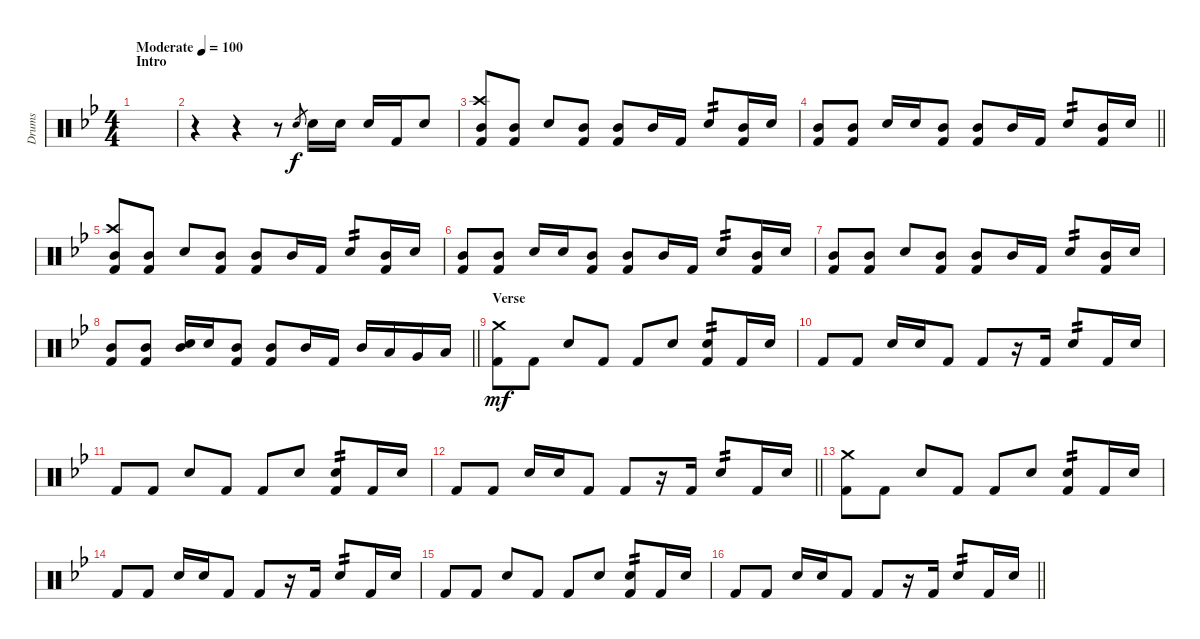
\track ("Drums" "Drums") {instrument percussion}
\staff {score}
\articulation defaults
\ts (4 4)
\section ("" "Intro")
\tempo (100 "Moderate")
\clef neutral
\ks gminor
|
r.4 r.4 r.8 "Snare (hit) 2".8{gr} "Snare (hit) 2".16 "Snare (hit) 2".16 "Snare (hit) 2".16 "Kick (hit) 2".16 "Snare (hit) 2".8 |
("Crash high (hit)" "Mid Tom (hit)" "Kick (hit) 2").8 ("Mid Tom (hit)" "Kick (hit) 2").8 "Snare (hit) 2".8 ("Mid Tom (hit)" "Kick (hit) 2").8 ("Mid Tom (hit)" "Kick (hit) 2").8 "Mid Tom (hit)".16 "Kick (hit) 2".16 "Snare (hit) 2".8{tp 2} ("Mid Tom (hit)" "Kick (hit) 2").16 "Snare (hit) 2".16 |
\barLineRight lightlight
("Mid Tom (hit)" "Kick (hit) 2").8 ("Mid Tom (hit)" "Kick (hit) 2").8 "Snare (hit) 2".16 "Snare (hit) 2".16 ("Mid Tom (hit)" "Kick (hit) 2").8 ("Mid Tom (hit)" "Kick (hit) 2").8 "Mid Tom (hit)".16 "Kick (hit) 2".16 "Snare (hit) 2".8{tp 2} ("Mid Tom (hit)" "Kick (hit) 2").16 "Snare (hit) 2".16 |
\section ("" "")
("Crash high (hit)" "Mid Tom (hit)" "Kick (hit) 2").8 ("Mid Tom (hit)" "Kick (hit) 2").8 "Snare (hit) 2".8 ("Mid Tom (hit)" "Kick (hit) 2").8 ("Mid Tom (hit)" "Kick (hit) 2").8 "Mid Tom (hit)".16 "Kick (hit) 2".16 "Snare (hit) 2".8{tp 2} ("Mid Tom (hit)" "Kick (hit) 2").16 "Snare (hit) 2".16 |
("Mid Tom (hit)" "Kick (hit) 2").8 ("Mid Tom (hit)" "Kick (hit) 2").8 "Snare (hit) 2".16 "Snare (hit) 2".16 ("Mid Tom (hit)" "Kick (hit) 2").8 ("Mid Tom (hit)" "Kick (hit) 2").8 "Mid Tom (hit)".16 "Kick (hit) 2".16 "Snare (hit) 2".8{tp 2} ("Mid Tom (hit)" "Kick (hit) 2").16 "Snare (hit) 2".16 |
("Mid Tom (hit)" "Kick (hit) 2").8 ("Mid Tom (hit)" "Kick (hit) 2").8 "Snare (hit) 2".8 ("Mid Tom (hit)" "Kick (hit) 2").8 ("Mid Tom (hit)" "Kick (hit) 2").8 "Mid Tom (hit)".16 "Kick (hit) 2".16 "Snare (hit) 2".8{tp 2} ("Mid Tom (hit)" "Kick (hit) 2").16 "Snare (hit) 2".16 |
\barLineRight lightlight
("Mid Tom (hit)" "Kick (hit) 2").8 ("Mid Tom (hit)" "Kick (hit) 2").8 ("Mid Tom (hit)" "Snare (hit) 2").16 "Snare (hit) 2".16 ("Mid Tom (hit)" "Kick (hit) 2").8 ("Mid Tom (hit)" "Kick (hit) 2").8 "Mid Tom (hit)".16 "Kick (hit) 2".16 "Mid Tom (hit)".16 "Low Tom (hit)".16 "Very Low Tom (hit)".16 "Low Tom (hit)".16 |
\section ("" "Verse")
("Crash medium (hit)" "Kick (hit) 2").8{dy mf} "Kick (hit) 2".8 "Snare (hit) 2".8 "Kick (hit) 2".8 "Kick (hit) 2".8 "Snare (hit) 2".8 ("Snare (hit) 2" "Kick (hit) 2").8{tp 2} "Kick (hit) 2".16 "Snare (hit) 2".16 |
"Kick (hit) 2".8 "Kick (hit) 2".8 "Snare (hit) 2".16 "Snare (hit) 2".16 "Kick (hit) 2".8 "Kick (hit) 2".8 r.16 "Kick (hit) 2".16 "Snare (hit) 2".8{tp 2} "Kick (hit) 2".16 "Snare (hit) 2".16 |
"Kick (hit) 2".8 "Kick (hit) 2".8 "Snare (hit) 2".8 "Kick (hit) 2".8 "Kick (hit) 2".8 "Snare (hit) 2".8 ("Snare (hit) 2" "Kick (hit) 2").8{tp 2} "Kick (hit) 2".16 "Snare (hit) 2".16 |
\barLineRight lightlight "Kick (hit) 2".8 "Kick (hit) 2".8 "Snare (hit) 2".16 "Snare (hit) 2".16 "Kick (hit) 2".8 "Kick (hit) 2".8
r.16 "Kick (hit) 2".16 "Snare (hit) 2".8{tp 2} "Kick (hit) 2".16 "Snare (hit) 2".16 |
\section ("" "")
("Crash medium (hit)" "Kick (hit) 2").8 "Kick (hit) 2".8 "Snare (hit) 2".8 "Kick (hit) 2".8 "Kick (hit) 2".8 "Snare (hit) 2".8 ("Snare (hit) 2" "Kick (hit) 2").8{tp 2} "Kick (hit) 2".16 "Snare (hit) 2".16 |
"Kick (hit) 2".8 "Kick (hit) 2".8 "Snare (hit) 2".16 "Snare (hit) 2".16 "Kick (hit) 2".8 "Kick (hit) 2".8 r.16 "Kick (hit) 2".16 "Snare (hit) 2".8{tp 2} "Kick (hit) 2".16 "Snare (hit) 2".16 |
"Kick (hit) 2".8 "Kick (hit) 2".8 "Snare (hit) 2".8 "Kick (hit) 2".8 "Kick (hit) 2".8 "Snare (hit) 2".8 ("Snare (hit) 2" "Kick (hit) 2").8{tp 2} "Kick (hit) 2".16 "Snare (hit) 2".16 |
\barLineRight lightlight "Kick (hit) 2".8 "Kick (hit) 2".8 "Snare (hit) 2".16 "Snare (hit) 2".16 "Kick (hit) 2".8 "Kick (hit) 2".8
r.16 "Kick (hit) 2".16 "Snare (hit) 2".8{tp 2} "Kick (hit) 2".16 "Snare (hit) 2".16
